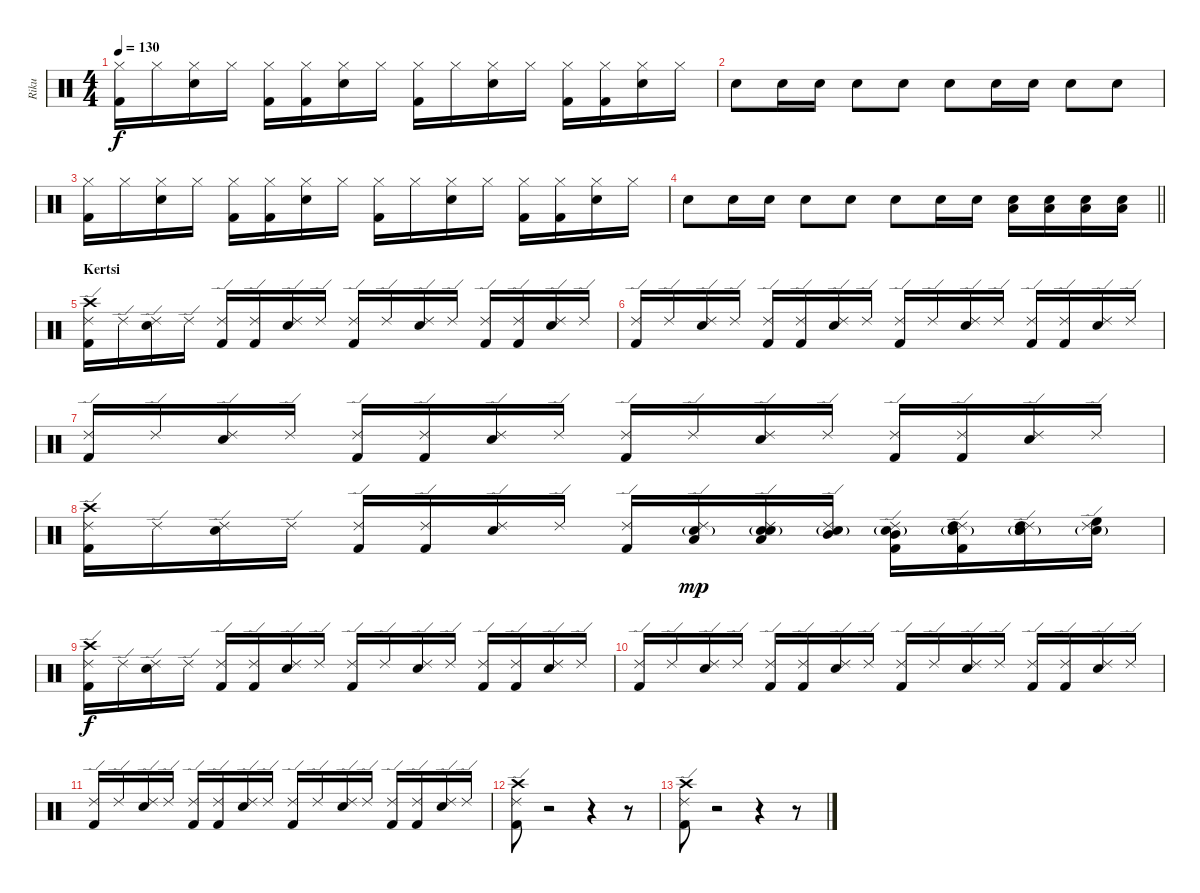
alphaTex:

\track ("Riku" "Riku") {instrument percussion}
\staff {score}
\articulation defaults
\ts (4 4)
\tempo 130
\clef neutral
\ks c
("Hi-Hat (closed)" "Kick (hit) 2").16{dy f} "Hi-Hat (closed)".16 ("Hi-Hat (closed)" "Snare (hit) 2").16 "Hi-Hat (closed)".16 ("Hi-Hat (closed)" "Kick (hit) 2").16 ("Hi-Hat (closed)" "Kick (hit) 2").16 ("Hi-Hat (closed)" "Snare (hit) 2").16 "Hi-Hat (closed)".16 ("Hi-Hat (closed)" "Kick (hit) 2").16 "Hi-Hat (closed)".16 ("Hi-Hat (closed)" "Snare (hit) 2").16 "Hi-Hat (closed)".16 ("Hi-Hat (closed)" "Kick (hit) 2").16 ("Hi-Hat (closed)" "Kick (hit) 2").16 ("Hi-Hat (closed)" "Snare (hit) 2").16 "Hi-Hat (closed)".16 |
"Snare (hit) 2".8 "Snare (hit) 2".16 "Snare (hit) 2".16 "Snare (hit) 2".8 "Snare (hit) 2".8 "Snare (hit) 2".8 "Snare (hit) 2".16 "Snare (hit) 2".16 "Snare (hit) 2".8 "Snare (hit) 2".8 |
("Hi-Hat (closed)" "Kick (hit) 2").16 "Hi-Hat (closed)".16 ("Hi-Hat (closed)" "Snare (hit) 2").16 "Hi-Hat (closed)".16 ("Hi-Hat (closed)" "Kick (hit) 2").16 ("Hi-Hat (closed)" "Kick (hit) 2").16 ("Hi-Hat (closed)" "Snare (hit) 2").16 "Hi-Hat (closed)".16 ("Hi-Hat (closed)" "Kick (hit) 2").16 "Hi-Hat (closed)".16 ("Hi-Hat (closed)" "Snare (hit) 2").16 "Hi-Hat (closed)".16 ("Hi-Hat (closed)" "Kick (hit) 2").16 ("Hi-Hat (closed)" "Kick (hit) 2").16 ("Hi-Hat (closed)" "Snare (hit) 2").16 "Hi-Hat (closed)".16 |
\barLineRight lightlight "Snare (hit) 2".8 "Snare (hit) 2".16 "Snare (hit) 2".16 "Snare (hit) 2".8 "Snare (hit) 2".8 "Snare (hit) 2".8 "Snare (hit) 2".16 "Snare (hit) 2".16
("Snare (hit) 2" "Low Tom (hit)").16 ("Snare (hit) 2" "Low Tom (hit)").16 ("Snare (hit) 2" "Low Tom (hit)").16 ("Snare (hit) 2" "Low Tom (hit)").16 |
\section ("" "Kertsi")
("Ride (edge) 2" "Kick (hit) 2" "Crash high (hit)").16 "Ride (edge) 2".16 ("Ride (edge) 2" "Snare (hit) 2").16 "Ride (edge) 2".16 ("Ride (edge) 2" "Kick (hit) 2").16 ("Ride (edge) 2" "Kick (hit) 2").16 ("Ride (edge) 2" "Snare (hit) 2").16 "Ride (edge) 2".16 ("Ride (edge) 2" "Kick (hit) 2").16 "Ride (edge) 2".16 ("Ride (edge) 2" "Snare (hit) 2").16 "Ride (edge) 2".16 ("Ride (edge) 2" "Kick (hit) 2").16 ("Ride (edge) 2" "Kick (hit) 2").16 ("Ride (edge) 2" "Snare (hit) 2").16 "Ride (edge) 2".16 |
("Ride (edge) 2" "Kick (hit) 2").16 "Ride (edge) 2".16 ("Ride (edge) 2" "Snare (hit) 2").16 "Ride (edge) 2".16 ("Ride (edge) 2" "Kick (hit) 2").16 ("Ride (edge) 2" "Kick (hit) 2").16 ("Ride (edge) 2" "Snare (hit) 2").16 "Ride (edge) 2".16 ("Ride (edge) 2" "Kick (hit) 2").16 "Ride (edge) 2".16 ("Ride (edge) 2" "Snare (hit) 2").16 "Ride (edge) 2".16 ("Ride (edge) 2" "Kick (hit) 2").16 ("Ride (edge) 2" "Kick (hit) 2").16 ("Ride (edge) 2" "Snare (hit) 2").16 "Ride (edge) 2".16 |
("Ride (edge) 2" "Kick (hit) 2").16 "Ride (edge) 2".16 ("Ride (edge) 2" "Snare (hit) 2").16 "Ride (edge) 2".16 ("Ride (edge) 2" "Kick (hit) 2").16 ("Ride (edge) 2" "Kick (hit) 2").16 ("Ride (edge) 2" "Snare (hit) 2").16 "Ride (edge) 2".16 ("Ride (edge) 2" "Kick (hit) 2").16 "Ride (edge) 2".16 ("Ride (edge) 2" "Snare (hit) 2").16 "Ride (edge) 2".16 ("Ride (edge) 2" "Kick (hit) 2").16 ("Ride (edge) 2" "Kick (hit) 2").16 ("Ride (edge) 2" "Snare (hit) 2").16 "Ride (edge) 2".16 |
("Ride (edge) 2" "Kick (hit) 2" "Crash high (hit)").16 "Ride (edge) 2".16 ("Ride (edge) 2" "Snare (hit) 2").16 "Ride (edge) 2".16 ("Ride (edge) 2" "Kick (hit) 2").16 ("Ride (edge) 2" "Kick (hit) 2").16 ("Ride (edge) 2" "Snare (hit) 2").16 "Ride (edge) 2".16 ("Ride (edge) 2" "Kick (hit) 2").16 ("Ride (edge) 2" "Low Tom (hit)" "Snare (hit) 2"{g}).16{dy mp} ("Ride (edge) 2" "Snare (hit) 2" "Low Tom (hit)" "Snare (hit) 2"{g}).16 ("Ride (edge) 2" "Mid Tom (hit)" "Snare (hit) 2"{g}).16 ("Ride (edge) 2" "Kick (hit) 2" "Mid Tom (hit)" "Snare (hit) 2"{g}).16 ("Ride (edge) 2" "Kick (hit) 2" "High Tom (hit)" "Snare (hit) 2"{g}).16 ("Ride (edge) 2" "Snare (hit) 2" "High Tom (hit)" "Snare (hit) 2"{g}).16 ("Ride (edge) 2" "High Floor Tom (hit)" "Snare (hit) 2"{g}).16 |
("Ride (edge) 2" "Kick (hit) 2" "Crash high (hit)").16{dy f} "Ride (edge) 2".16 ("Ride (edge) 2" "Snare (hit) 2").16 "Ride (edge) 2".16 ("Ride (edge) 2" "Kick (hit) 2").16 ("Ride (edge) 2" "Kick (hit) 2").16 ("Ride (edge) 2" "Snare (hit) 2").16 "Ride (edge) 2".16 ("Ride (edge) 2" "Kick (hit) 2").16 "Ride (edge) 2".16 ("Ride (edge) 2" "Snare (hit) 2").16 "Ride (edge) 2".16 ("Ride (edge) 2" "Kick (hit) 2").16 ("Ride (edge) 2" "Kick (hit) 2").16 ("Ride (edge) 2" "Snare (hit) 2").16 "Ride (edge) 2".16 |
("Ride (edge) 2" "Kick (hit) 2").16 "Ride (edge) 2".16 ("Ride (edge) 2" "Snare (hit) 2").16 "Ride (edge) 2".16 ("Ride (edge) 2" "Kick (hit) 2").16 ("Ride (edge) 2" "Kick (hit) 2").16 ("Ride (edge) 2" "Snare (hit) 2").16 "Ride (edge) 2".16 ("Ride (edge) 2" "Kick (hit) 2").16 "Ride (edge) 2".16 ("Ride (edge) 2" "Snare (hit) 2").16 "Ride (edge) 2".16 ("Ride (edge) 2" "Kick (hit) 2").16 ("Ride (edge) 2" "Kick (hit) 2").16 ("Ride (edge) 2" "Snare (hit) 2").16 "Ride (edge) 2".16 |
("Ride (edge) 2" "Kick (hit) 2").16 "Ride (edge) 2".16 ("Ride (edge) 2" "Snare (hit) 2").16 "Ride (edge) 2".16 ("Ride (edge) 2" "Kick (hit) 2").16 ("Ride (edge) 2" "Kick (hit) 2").16 ("Ride (edge) 2" "Snare (hit) 2").16 "Ride (edge) 2".16 ("Ride (edge) 2" "Kick (hit) 2").16 "Ride (edge) 2".16 ("Ride (edge) 2" "Snare (hit) 2").16 "Ride (edge) 2".16 ("Ride (edge) 2" "Kick (hit) 2").16 ("Ride (edge) 2" "Kick (hit) 2").16 ("Ride (edge) 2" "Snare (hit) 2").16 "Ride (edge) 2".16 |
("Ride (edge) 2" "Kick (hit) 2" "Crash high (hit)").8 r.2 r.4 r.8 |
("Ride (edge) 2" "Kick (hit) 2" "Crash high (hit)").8 r.2 r.4 r.8
